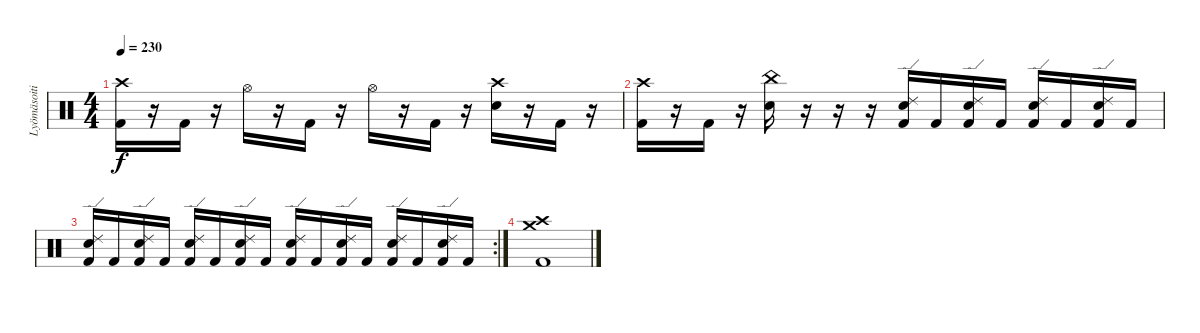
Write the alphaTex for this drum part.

\track ("Lyömäsoitin" "Lyömäsoiti") {instrument percussion}
\staff {score}
\articulation defaults
\ts (4 4)
\tempo 230
\clef neutral
\ks c
("Crash high (hit)" "Kick (hit) 2").16{dy f} r.16 "Kick (hit) 2".16 r.16 "Hi-Hat (open)".16 r.16 "Kick (hit) 2".16 r.16 "Hi-Hat (open)".16 r.16 "Kick (hit) 2".16 r.16 ("Crash high (hit)" "Snare (hit) 2").16 r.16 "Kick (hit) 2".16 r.16 |
("Crash high (hit)" "Kick (hit) 2").16 r.16 "Kick (hit) 2".16 r.16 ("China (hit)" "Snare (hit) 2").16 r.16 r.16 r.16 ("Ride (edge) 2" "Snare (hit) 2" "Kick (hit) 2").16 "Kick (hit) 2".16 ("Ride (edge) 2" "Snare (hit) 2" "Kick (hit) 2").16 "Kick (hit) 2".16 ("Ride (edge) 2" "Snare (hit) 2" "Kick (hit) 2").16 "Kick (hit) 2".16 ("Ride (edge) 2" "Snare (hit) 2" "Kick (hit) 2").16 "Kick (hit) 2".16 |
\rc 2
("Ride (edge) 2" "Snare (hit) 2" "Kick (hit) 2").16 "Kick (hit) 2".16 ("Ride (edge) 2" "Snare (hit) 2" "Kick (hit) 2").16 "Kick (hit) 2".16 ("Ride (edge) 2" "Snare (hit) 2" "Kick (hit) 2").16 "Kick (hit) 2".16 ("Ride (edge) 2" "Snare (hit) 2" "Kick (hit) 2").16 "Kick (hit) 2".16 ("Ride (edge) 2" "Snare (hit) 2" "Kick (hit) 2").16 "Kick (hit) 2".16 ("Ride (edge) 2" "Snare (hit) 2" "Kick (hit) 2").16 "Kick (hit) 2".16 ("Ride (edge) 2" "Snare (hit) 2" "Kick (hit) 2").16 "Kick (hit) 2".16 ("Ride (edge) 2" "Snare (hit) 2" "Kick (hit) 2").16 "Kick (hit) 2".16 |
("Crash medium (hit)" "Crash high (hit)" "Kick (hit) 2").1
